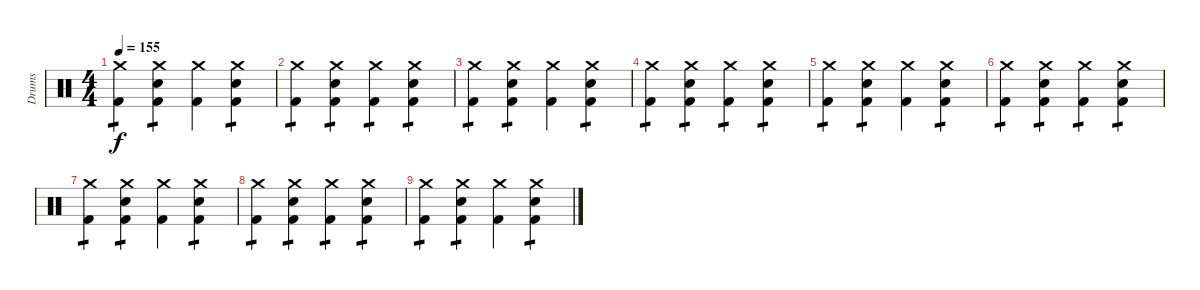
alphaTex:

\track ("Drums" "Drums") {instrument percussion}
\staff {score}
\articulation defaults
\ts (4 4)
\tempo 155
\clef neutral
\ks c
("Crash medium (hit)" "Kick (hit) 2").4{tp 1 dy f} ("Crash medium (hit)" "Snare (hit) 2" "Kick (hit) 2").4{tp 1} ("Crash medium (hit)" "Kick (hit) 2").4 ("Crash medium (hit)" "Snare (hit) 2" "Kick (hit) 2").4{tp 1} |
("Crash medium (hit)" "Kick (hit) 2").4{tp 1} ("Crash medium (hit)" "Snare (hit) 2" "Kick (hit) 2").4{tp 1} ("Crash medium (hit)" "Kick (hit) 2").4{tp 1} ("Crash medium (hit)" "Snare (hit) 2" "Kick (hit) 2").4{tp 1} |
("Crash medium (hit)" "Kick (hit) 2").4{tp 1} ("Crash medium (hit)" "Snare (hit) 2" "Kick (hit) 2").4{tp 1} ("Crash medium (hit)" "Kick (hit) 2").4 ("Crash medium (hit)" "Snare (hit) 2" "Kick (hit) 2").4{tp 1} |
("Crash medium (hit)" "Kick (hit) 2").4{tp 1} ("Crash medium (hit)" "Snare (hit) 2" "Kick (hit) 2").4{tp 1} ("Crash medium (hit)" "Kick (hit) 2").4{tp 1} ("Crash medium (hit)" "Snare (hit) 2" "Kick (hit) 2").4{tp 1} |
("Crash medium (hit)" "Kick (hit) 2").4{tp 1} ("Crash medium (hit)" "Snare (hit) 2" "Kick (hit) 2").4{tp 1} ("Crash medium (hit)" "Kick (hit) 2").4 ("Crash medium (hit)" "Snare (hit) 2" "Kick (hit) 2").4{tp 1} |
("Crash medium (hit)" "Kick (hit) 2").4{tp 1} ("Crash medium (hit)" "Snare (hit) 2" "Kick (hit) 2").4{tp 1} ("Crash medium (hit)" "Kick (hit) 2").4{tp 1} ("Crash medium (hit)" "Snare (hit) 2" "Kick (hit) 2").4{tp 1} |
("Crash medium (hit)" "Kick (hit) 2").4{tp 1} ("Crash medium (hit)" "Snare (hit) 2" "Kick (hit) 2").4{tp 1} ("Crash medium (hit)" "Kick (hit) 2").4 ("Crash medium (hit)" "Snare (hit) 2" "Kick (hit) 2").4{tp 1} |
("Crash medium (hit)" "Kick (hit) 2").4{tp 1} ("Crash medium (hit)" "Snare (hit) 2" "Kick (hit) 2").4{tp 1} ("Crash medium (hit)" "Kick (hit) 2").4{tp 1} ("Crash medium (hit)" "Snare (hit) 2" "Kick (hit) 2").4{tp 1} |
("Crash medium (hit)" "Kick (hit) 2").4{tp 1} ("Crash medium (hit)" "Snare (hit) 2" "Kick (hit) 2").4{tp 1} ("Crash medium (hit)" "Kick (hit) 2").4 ("Crash medium (hit)" "Snare (hit) 2" "Kick (hit) 2").4{tp 1}
